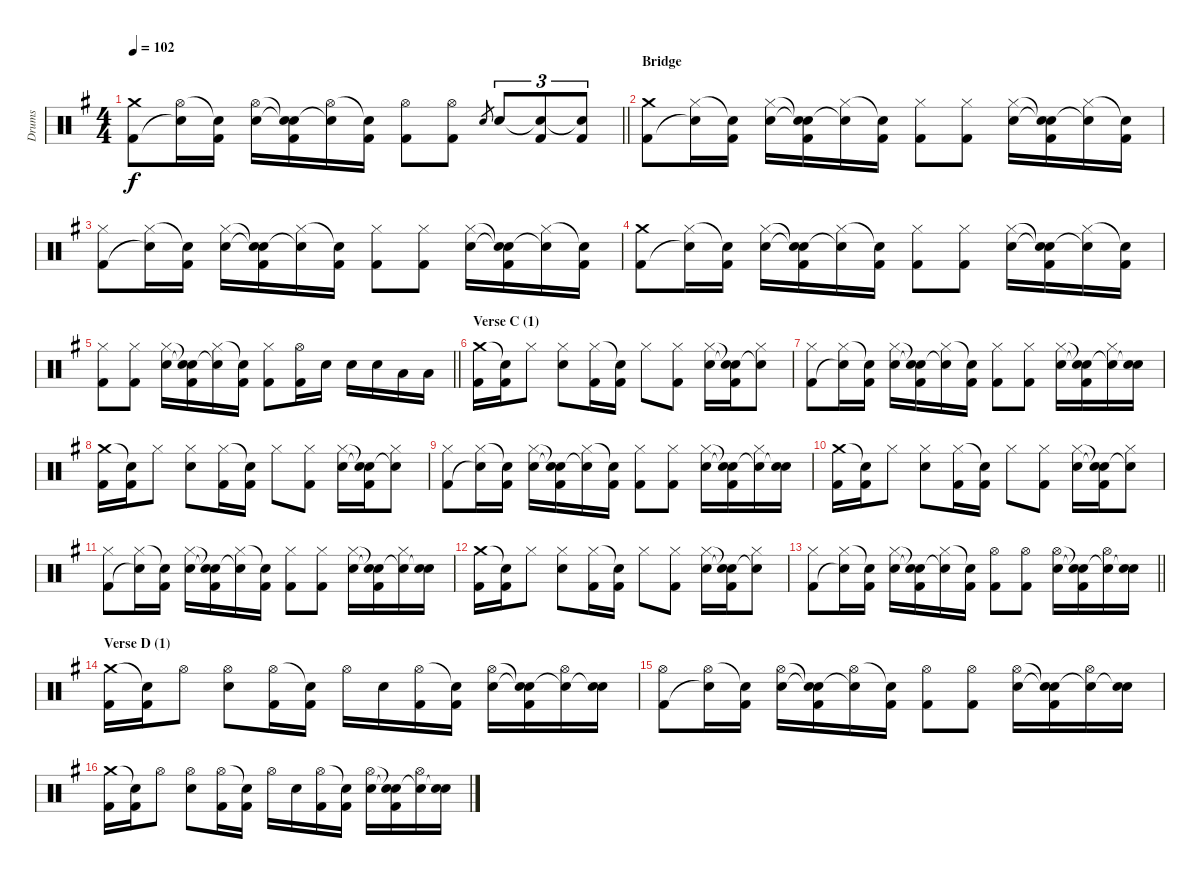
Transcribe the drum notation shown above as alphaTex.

\track ("Drums" "Drums") {instrument percussion}
\staff {score}
\articulation defaults
\ts (4 4)
\tempo 102
\clef neutral
\barLineRight lightlight
\ks eminor
("Crash medium (hit)" "Kick (hit) 2").8{dy f} ("Hi-Hat (open)" "Snare (hit)"{t}).16 ("Snare (hit)"{t} "Kick (hit) 2").16 ("Hi-Hat (open)" "Electric Snare (hit)").16 ("Snare (hit)"{t} "Snare (hit)"{t} "Kick (hit) 2").16 ("Hi-Hat (open)" "Snare (hit)"{t}).16 ("Snare (hit)"{t} "Kick (hit) 2").16 ("Hi-Hat (open)" "Kick (hit) 2").8 ("Hi-Hat (open)" "Kick (hit) 2").8 "Electric Snare (hit)".8{gr} "Electric Snare (hit)".8{tu (3 2)} ("Snare (hit)"{t} "Kick (hit) 2").8{tu (3 2)} ("Snare (hit)"{t} "Kick (hit) 2").8{tu (3 2)} |
\section ("" "Bridge")
("Crash medium (hit)" "Kick (hit) 2").8 ("Hi-Hat (closed)" "Snare (hit)"{t}).16 ("Snare (hit)"{t} "Kick (hit) 2").16 ("Hi-Hat (closed)" "Electric Snare (hit)").16 ("Snare (hit)"{t} "Snare (hit)"{t} "Kick (hit) 2").16 ("Hi-Hat (closed)" "Snare (hit)"{t}).16 ("Snare (hit)"{t} "Kick (hit) 2").16 ("Hi-Hat (closed)" "Kick (hit) 2").8 ("Hi-Hat (closed)" "Kick (hit) 2").8 ("Hi-Hat (closed)" "Electric Snare (hit)").16 ("Snare (hit)"{t} "Snare (hit)"{t} "Kick (hit) 2").16 ("Hi-Hat (closed)" "Snare (hit)"{t}).16 ("Snare (hit)"{t} "Kick (hit) 2").16 |
("Hi-Hat (closed)" "Kick (hit) 2").8 ("Hi-Hat (closed)" "Snare (hit)"{t}).16 ("Snare (hit)"{t} "Kick (hit) 2").16 ("Hi-Hat (closed)" "Electric Snare (hit)").16 ("Snare (hit)"{t} "Snare (hit)"{t} "Kick (hit) 2").16 ("Hi-Hat (closed)" "Snare (hit)"{t}).16 ("Snare (hit)"{t} "Kick (hit) 2").16 ("Hi-Hat (closed)" "Kick (hit) 2").8 ("Hi-Hat (closed)" "Kick (hit) 2").8 ("Hi-Hat (closed)" "Electric Snare (hit)").16 ("Snare (hit)"{t} "Snare (hit)"{t} "Kick (hit) 2").16 ("Hi-Hat (closed)" "Snare (hit)"{t}).16 ("Snare (hit)"{t} "Kick (hit) 2").16 |
("Crash medium (hit)" "Kick (hit) 2").8 ("Hi-Hat (closed)" "Snare (hit)"{t}).16 ("Snare (hit)"{t} "Kick (hit) 2").16 ("Hi-Hat (closed)" "Electric Snare (hit)").16 ("Snare (hit)"{t} "Snare (hit)"{t} "Kick (hit) 2").16 ("Hi-Hat (closed)" "Snare (hit)"{t}).16 ("Snare (hit)"{t} "Kick (hit) 2").16 ("Hi-Hat (closed)" "Kick (hit) 2").8 ("Hi-Hat (closed)" "Kick (hit) 2").8 ("Hi-Hat (closed)" "Electric Snare (hit)").16 ("Snare (hit)"{t} "Snare (hit)"{t} "Kick (hit) 2").16 ("Hi-Hat (closed)" "Snare (hit)"{t}).16 ("Snare (hit)"{t} "Kick (hit) 2").16 |
\barLineRight lightlight
("Hi-Hat (closed)" "Kick (hit) 2").8 ("Hi-Hat (closed)" "Kick (hit) 2").8 ("Hi-Hat (closed)" "Electric Snare (hit)").16 ("Snare (hit)"{t} "Snare (hit)"{t} "Kick (hit) 2").16 ("Hi-Hat (closed)" "Snare (hit)"{t}).16 ("Snare (hit)"{t} "Kick (hit) 2").16 ("Hi-Hat (closed)" "Kick (hit) 2").8 ("Hi-Hat (open)" "Kick (hit) 2").16 "Electric Snare (hit)".16 "Electric Snare (hit)".16 "Electric Snare (hit)".16 "Low Tom (hit)".16 "Low Tom (hit)".16 |
\section ("" "Verse C (1)")
("Crash medium (hit)" "Kick (hit) 2").16 ("Snare (hit)"{t} "Kick (hit) 2").16 "Hi-Hat (closed)".8 ("Hi-Hat (closed)" "Electric Snare (hit)").8 ("Hi-Hat (closed)" "Kick (hit) 2").16 ("Snare (hit)"{t} "Kick (hit) 2").16 "Hi-Hat (closed)".8 ("Hi-Hat (closed)" "Kick (hit) 2").8 ("Hi-Hat (closed)" "Electric Snare (hit)").16 ("Snare (hit)"{t} "Snare (hit)"{t} "Kick (hit) 2").16 ("Hi-Hat (closed)" "Snare (hit)"{t}).8 |
("Hi-Hat (closed)" "Kick (hit) 2").8 ("Hi-Hat (closed)" "Snare (hit)"{t}).16 ("Snare (hit)"{t} "Kick (hit) 2").16 ("Hi-Hat (closed)" "Electric Snare (hit)").16 ("Snare (hit)"{t} "Snare (hit)"{t} "Kick (hit) 2").16 ("Hi-Hat (closed)" "Snare (hit)"{t}).16 ("Snare (hit)"{t} "Kick (hit) 2").16 ("Hi-Hat (closed)" "Kick (hit) 2").8 ("Hi-Hat (closed)" "Kick (hit) 2").8 ("Hi-Hat (closed)" "Electric Snare (hit)").16 ("Snare (hit)"{t} "Snare (hit)"{t} "Kick (hit) 2").16 ("Hi-Hat (closed)" "Snare (hit)"{t}).16 ("Electric Snare (hit)" "Snare (hit)"{t}).16 |
("Crash medium (hit)" "Kick (hit) 2").16 ("Snare (hit)"{t} "Kick (hit) 2").16 "Hi-Hat (closed)".8 ("Hi-Hat (closed)" "Electric Snare (hit)").8 ("Hi-Hat (closed)" "Kick (hit) 2").16 ("Snare (hit)"{t} "Kick (hit) 2").16 "Hi-Hat (closed)".8 ("Hi-Hat (closed)" "Kick (hit) 2").8 ("Hi-Hat (closed)" "Electric Snare (hit)").16 ("Snare (hit)"{t} "Snare (hit)"{t} "Kick (hit) 2").16 ("Hi-Hat (closed)" "Snare (hit)"{t}).8 |
("Hi-Hat (closed)" "Kick (hit) 2").8 ("Hi-Hat (closed)" "Snare (hit)"{t}).16 ("Snare (hit)"{t} "Kick (hit) 2").16 ("Hi-Hat (closed)" "Electric Snare (hit)").16 ("Snare (hit)"{t} "Snare (hit)"{t} "Kick (hit) 2").16 ("Hi-Hat (closed)" "Snare (hit)"{t}).16 ("Snare (hit)"{t} "Kick (hit) 2").16 ("Hi-Hat (closed)" "Kick (hit) 2").8 ("Hi-Hat (closed)" "Kick (hit) 2").8 ("Hi-Hat (closed)" "Electric Snare (hit)").16 ("Snare (hit)"{t} "Snare (hit)"{t} "Kick (hit) 2").16 ("Hi-Hat (closed)" "Snare (hit)"{t}).16 ("Electric Snare (hit)" "Snare (hit)"{t}).16 |
("Crash medium (hit)" "Kick (hit) 2").16 ("Snare (hit)"{t} "Kick (hit) 2").16 "Hi-Hat (closed)".8 ("Hi-Hat (closed)" "Electric Snare (hit)").8 ("Hi-Hat (closed)" "Kick (hit) 2").16 ("Snare (hit)"{t} "Kick (hit) 2").16 "Hi-Hat (closed)".8 ("Hi-Hat (closed)" "Kick (hit) 2").8 ("Hi-Hat (closed)" "Electric Snare (hit)").16 ("Snare (hit)"{t} "Snare (hit)"{t} "Kick (hit) 2").16 ("Hi-Hat (closed)" "Snare (hit)"{t}).8 |
("Hi-Hat (closed)" "Kick (hit) 2").8 ("Hi-Hat (closed)" "Snare (hit)"{t}).16 ("Snare (hit)"{t} "Kick (hit) 2").16 ("Hi-Hat (closed)" "Electric Snare (hit)").16 ("Snare (hit)"{t} "Snare (hit)"{t} "Kick (hit) 2").16 ("Hi-Hat (closed)" "Snare (hit)"{t}).16 ("Snare (hit)"{t} "Kick (hit) 2").16 ("Hi-Hat (closed)" "Kick (hit) 2").8 ("Hi-Hat (closed)" "Kick (hit) 2").8 ("Hi-Hat (closed)" "Electric Snare (hit)").16 ("Snare (hit)"{t} "Snare (hit)"{t} "Kick (hit) 2").16 ("Hi-Hat (closed)" "Snare (hit)"{t}).16 ("Electric Snare (hit)" "Snare (hit)"{t}).16 |
("Crash medium (hit)" "Kick (hit) 2").16 ("Snare (hit)"{t} "Kick (hit) 2").16 "Hi-Hat (closed)".8 ("Hi-Hat (closed)" "Electric Snare (hit)").8 ("Hi-Hat (closed)" "Kick (hit) 2").16 ("Snare (hit)"{t} "Kick (hit) 2").16 "Hi-Hat (closed)".8 ("Hi-Hat (closed)" "Kick (hit) 2").8 ("Hi-Hat (closed)" "Electric Snare (hit)").16 ("Snare (hit)"{t} "Snare (hit)"{t} "Kick (hit) 2").16 ("Hi-Hat (closed)" "Snare (hit)"{t}).8 |
\barLineRight lightlight
("Hi-Hat (closed)" "Kick (hit) 2").8 ("Hi-Hat (closed)" "Snare (hit)"{t}).16 ("Snare (hit)"{t} "Kick (hit) 2").16 ("Hi-Hat (closed)" "Electric Snare (hit)").16 ("Snare (hit)"{t} "Snare (hit)"{t} "Kick (hit) 2").16 ("Hi-Hat (closed)" "Snare (hit)"{t}).16 ("Snare (hit)"{t} "Kick (hit) 2").16 ("Hi-Hat (open)" "Kick (hit) 2").8 ("Hi-Hat (open)" "Kick (hit) 2").8 ("Hi-Hat (open)" "Electric Snare (hit)").16 ("Snare (hit)"{t} "Snare (hit)"{t} "Kick (hit) 2").16 ("Hi-Hat (open)" "Snare (hit)"{t}).16 ("Electric Snare (hit)" "Snare (hit)"{t}).16 |
\section ("" "Verse D (1)")
("Crash medium (hit)" "Kick (hit) 2").16 ("Snare (hit)"{t} "Kick (hit) 2").16 "Hi-Hat (open)".8 ("Hi-Hat (open)" "Electric Snare (hit)").8 ("Hi-Hat (open)" "Kick (hit) 2").16 ("Snare (hit)"{t} "Kick (hit) 2").16 "Hi-Hat (open)".16 "Electric Snare (hit)".16 ("Hi-Hat (open)" "Kick (hit) 2").16 ("Snare (hit)"{t} "Kick (hit) 2").16 ("Hi-Hat (open)" "Electric Snare (hit)").16 ("Snare (hit)"{t} "Snare (hit)"{t} "Kick (hit) 2").16 ("Hi-Hat (open)" "Snare (hit)"{t}).16 ("Electric Snare (hit)" "Snare (hit)"{t}).16 |
("Hi-Hat (open)" "Kick (hit) 2").8 ("Hi-Hat (open)" "Snare (hit)"{t}).16 ("Snare (hit)"{t} "Kick (hit) 2").16 ("Hi-Hat (open)" "Electric Snare (hit)").16 ("Snare (hit)"{t} "Snare (hit)"{t} "Kick (hit) 2").16 ("Hi-Hat (open)" "Snare (hit)"{t}).16 ("Snare (hit)"{t} "Kick (hit) 2").16 ("Hi-Hat (open)" "Kick (hit) 2").8 ("Hi-Hat (open)" "Kick (hit) 2").8 ("Hi-Hat (open)" "Electric Snare (hit)").16 ("Snare (hit)"{t} "Snare (hit)"{t} "Kick (hit) 2").16 ("Hi-Hat (open)" "Snare (hit)"{t}).16 ("Electric Snare (hit)" "Snare (hit)"{t}).16 |
("Crash medium (hit)" "Kick (hit) 2").16 ("Snare (hit)"{t} "Kick (hit) 2").16 "Hi-Hat (open)".8 ("Hi-Hat (open)" "Electric Snare (hit)").8 ("Hi-Hat (open)" "Kick (hit) 2").16 ("Snare (hit)"{t} "Kick (hit) 2").16 "Hi-Hat (open)".16 "Electric Snare (hit)".16 ("Hi-Hat (open)" "Kick (hit) 2").16 ("Snare (hit)"{t} "Kick (hit) 2").16 ("Hi-Hat (open)" "Electric Snare (hit)").16 ("Snare (hit)"{t} "Snare (hit)"{t} "Kick (hit) 2").16 ("Hi-Hat (open)" "Snare (hit)"{t}).16 ("Electric Snare (hit)" "Snare (hit)"{t}).16
